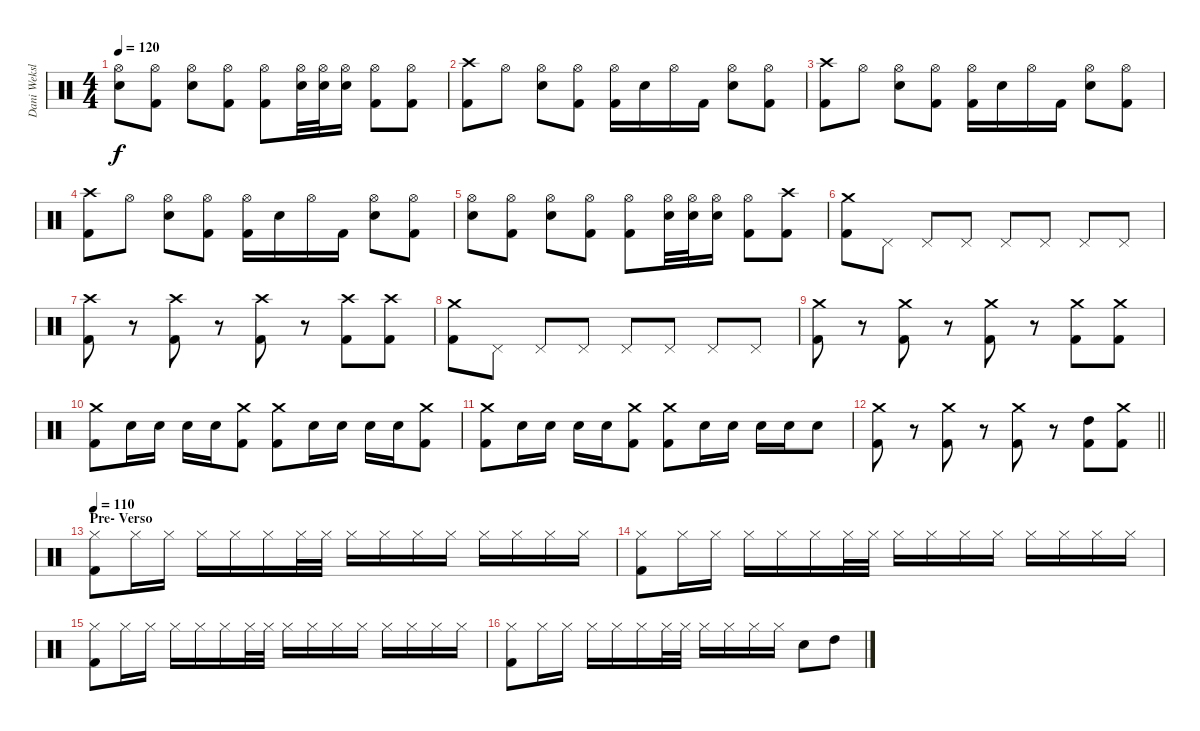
\track ("Dani Weksler" "Dani Weksl") {instrument percussion}
\staff {score}
\articulation defaults
\ts (4 4)
\tempo 120
\clef neutral
\ks c
("Hi-Hat (open)" "Electric Snare (hit)").8{dy f} ("Hi-Hat (open)" "Kick (hit) 2").8 ("Hi-Hat (open)" "Electric Snare (hit)").8 ("Hi-Hat (open)" "Kick (hit) 2").8 ("Hi-Hat (open)" "Kick (hit) 2").8 ("Hi-Hat (open)" "Electric Snare (hit)").32 ("Hi-Hat (open)" "Electric Snare (hit)").32 ("Hi-Hat (open)" "Electric Snare (hit)").16 ("Hi-Hat (open)" "Kick (hit) 2").8 ("Hi-Hat (open)" "Kick (hit) 2").8 |
("Crash high (hit)" "Kick (hit) 2").8 "Hi-Hat (open)".8 ("Hi-Hat (open)" "Electric Snare (hit)").8 ("Hi-Hat (open)" "Kick (hit) 2").8 ("Hi-Hat (open)" "Kick (hit) 2").16 "Electric Snare (hit)".16 "Hi-Hat (open)".16 "Kick (hit) 2".16 ("Hi-Hat (open)" "Electric Snare (hit)").8 ("Hi-Hat (open)" "Kick (hit) 2").8 |
("Crash high (hit)" "Kick (hit) 2").8 "Hi-Hat (open)".8 ("Hi-Hat (open)" "Electric Snare (hit)").8 ("Hi-Hat (open)" "Kick (hit) 2").8 ("Hi-Hat (open)" "Kick (hit) 2").16 "Electric Snare (hit)".16 "Hi-Hat (open)".16 "Kick (hit) 2".16 ("Hi-Hat (open)" "Electric Snare (hit)").8 ("Hi-Hat (open)" "Kick (hit) 2").8 |
("Crash high (hit)" "Kick (hit) 2").8 "Hi-Hat (open)".8 ("Hi-Hat (open)" "Electric Snare (hit)").8 ("Hi-Hat (open)" "Kick (hit) 2").8 ("Hi-Hat (open)" "Kick (hit) 2").16 "Electric Snare (hit)".16 "Hi-Hat (open)".16 "Kick (hit) 2".16 ("Hi-Hat (open)" "Electric Snare (hit)").8 ("Hi-Hat (open)" "Kick (hit) 2").8 |
("Hi-Hat (open)" "Electric Snare (hit)").8 ("Hi-Hat (open)" "Kick (hit) 2").8 ("Hi-Hat (open)" "Electric Snare (hit)").8 ("Hi-Hat (open)" "Kick (hit) 2").8 ("Hi-Hat (open)" "Kick (hit) 2").8 ("Hi-Hat (open)" "Electric Snare (hit)").32 ("Hi-Hat (open)" "Electric Snare (hit)").32 ("Hi-Hat (open)" "Electric Snare (hit)").16 ("Hi-Hat (open)" "Kick (hit) 2").8 ("Crash high (hit)" "Kick (hit) 2").8 |
("Crash medium (hit)" "Kick (hit) 2").8 "Pedal Hi-Hat (hit)".8 "Pedal Hi-Hat (hit)".8 "Pedal Hi-Hat (hit)".8 "Pedal Hi-Hat (hit)".8 "Pedal Hi-Hat (hit)".8 "Pedal Hi-Hat (hit)".8 "Pedal Hi-Hat (hit)".8 |
("Crash high (hit)" "Kick (hit) 2").8 r.8 ("Crash high (hit)" "Kick (hit) 2").8 r.8 ("Crash high (hit)" "Kick (hit) 2").8 r.8 ("Crash high (hit)" "Kick (hit) 2").8 ("Crash high (hit)" "Kick (hit) 2").8 |
("Crash medium (hit)" "Kick (hit) 2").8 "Pedal Hi-Hat (hit)".8 "Pedal Hi-Hat (hit)".8 "Pedal Hi-Hat (hit)".8 "Pedal Hi-Hat (hit)".8 "Pedal Hi-Hat (hit)".8 "Pedal Hi-Hat (hit)".8 "Pedal Hi-Hat (hit)".8 |
("Crash medium (hit)" "Kick (hit) 2").8 r.8 ("Crash medium (hit)" "Kick (hit) 2").8 r.8 ("Crash medium (hit)" "Kick (hit) 2").8 r.8 ("Crash medium (hit)" "Kick (hit) 2").8 ("Crash medium (hit)" "Kick (hit) 2").8 |
("Crash medium (hit)" "Kick (hit) 2").8 "Electric Snare (hit)".16 "Electric Snare (hit)".16 "Electric Snare (hit)".16 "Electric Snare (hit)".16 ("Crash medium (hit)" "Kick (hit) 2").8 ("Crash medium (hit)" "Kick (hit) 2").8 "Electric Snare (hit)".16 "Electric Snare (hit)".16 "Electric Snare (hit)".16 "Electric Snare (hit)".16 ("Crash medium (hit)" "Kick (hit) 2").8 |
("Crash medium (hit)" "Kick (hit) 2").8 "Electric Snare (hit)".16 "Electric Snare (hit)".16 "Electric Snare (hit)".16 "Electric Snare (hit)".16 ("Crash medium (hit)" "Kick (hit) 2").8 ("Crash medium (hit)" "Kick (hit) 2").8 "Electric Snare (hit)".16 "Electric Snare (hit)".16 "Electric Snare (hit)".16 "Electric Snare (hit)".16 "Electric Snare (hit)".8 |
\barLineRight lightlight
("Crash medium (hit)" "Kick (hit) 2").8 r.8 ("Crash medium (hit)" "Kick (hit) 2").8 r.8 ("Crash medium (hit)" "Kick (hit) 2").8 r.8 ("High Tom (hit)" "Kick (hit) 2").8 ("Crash medium (hit)" "Kick (hit) 2").8 |
\section ("" "Pre- Verso")
\tempo 110
("Hi-Hat (closed)" "Kick (hit) 2").8 "Hi-Hat (closed)".16 "Hi-Hat (closed)".16 "Hi-Hat (closed)".16 "Hi-Hat (closed)".16 "Hi-Hat (closed)".16 "Hi-Hat (closed)".32 "Hi-Hat (closed)".32 "Hi-Hat (closed)".16 "Hi-Hat (closed)".16 "Hi-Hat (closed)".16 "Hi-Hat (closed)".16 "Hi-Hat (closed)".16 "Hi-Hat (closed)".16 "Hi-Hat (closed)".16 "Hi-Hat (closed)".16 |
("Hi-Hat (closed)" "Kick (hit) 2").8 "Hi-Hat (closed)".16 "Hi-Hat (closed)".16 "Hi-Hat (closed)".16 "Hi-Hat (closed)".16 "Hi-Hat (closed)".16 "Hi-Hat (closed)".32 "Hi-Hat (closed)".32 "Hi-Hat (closed)".16 "Hi-Hat (closed)".16 "Hi-Hat (closed)".16 "Hi-Hat (closed)".16 "Hi-Hat (closed)".16 "Hi-Hat (closed)".16 "Hi-Hat (closed)".16 "Hi-Hat (closed)".16 |
("Hi-Hat (closed)" "Kick (hit) 2").8 "Hi-Hat (closed)".16 "Hi-Hat (closed)".16 "Hi-Hat (closed)".16 "Hi-Hat (closed)".16 "Hi-Hat (closed)".16 "Hi-Hat (closed)".32 "Hi-Hat (closed)".32 "Hi-Hat (closed)".16 "Hi-Hat (closed)".16 "Hi-Hat (closed)".16 "Hi-Hat (closed)".16 "Hi-Hat (closed)".16 "Hi-Hat (closed)".16 "Hi-Hat (closed)".16 "Hi-Hat (closed)".16 |
("Hi-Hat (closed)" "Kick (hit) 2").8 "Hi-Hat (closed)".16 "Hi-Hat (closed)".16 "Hi-Hat (closed)".16 "Hi-Hat (closed)".16 "Hi-Hat (closed)".16 "Hi-Hat (closed)".32 "Hi-Hat (closed)".32 "Hi-Hat (closed)".16 "Hi-Hat (closed)".16 "Hi-Hat (closed)".16 "Hi-Hat (closed)".16 "Electric Snare (hit)".8 "High Tom (hit)".8
